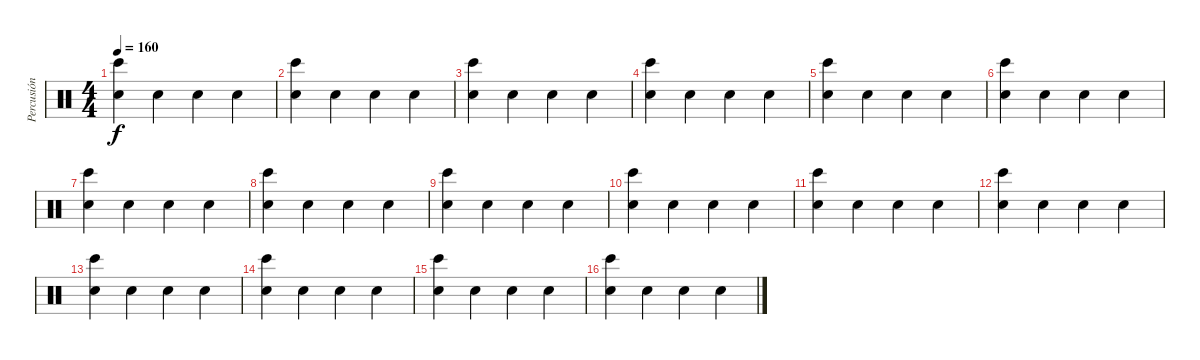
\track ("Percusión" "Percusión") {instrument percussion}
\staff {score}
\articulation defaults
\ts (4 4)
\tempo 160
\clef neutral
\ks c
("Electric Snare (hit)" "Bongo High (hit)").4{dy f} "Electric Snare (hit)".4 "Electric Snare (hit)".4 "Electric Snare (hit)".4 |
("Electric Snare (hit)" "Bongo High (hit)").4 "Electric Snare (hit)".4 "Electric Snare (hit)".4 "Electric Snare (hit)".4 |
("Electric Snare (hit)" "Bongo High (hit)").4 "Electric Snare (hit)".4 "Electric Snare (hit)".4 "Electric Snare (hit)".4 |
("Electric Snare (hit)" "Bongo High (hit)").4 "Electric Snare (hit)".4 "Electric Snare (hit)".4 "Electric Snare (hit)".4 |
("Electric Snare (hit)" "Bongo High (hit)").4 "Electric Snare (hit)".4 "Electric Snare (hit)".4 "Electric Snare (hit)".4 |
("Electric Snare (hit)" "Bongo High (hit)").4 "Electric Snare (hit)".4 "Electric Snare (hit)".4 "Electric Snare (hit)".4 |
("Electric Snare (hit)" "Bongo High (hit)").4 "Electric Snare (hit)".4 "Electric Snare (hit)".4 "Electric Snare (hit)".4 |
("Electric Snare (hit)" "Bongo High (hit)").4 "Electric Snare (hit)".4 "Electric Snare (hit)".4 "Electric Snare (hit)".4 |
("Electric Snare (hit)" "Bongo High (hit)").4 "Electric Snare (hit)".4 "Electric Snare (hit)".4 "Electric Snare (hit)".4 |
("Electric Snare (hit)" "Bongo High (hit)").4 "Electric Snare (hit)".4 "Electric Snare (hit)".4 "Electric Snare (hit)".4 |
("Electric Snare (hit)" "Bongo High (hit)").4 "Electric Snare (hit)".4 "Electric Snare (hit)".4 "Electric Snare (hit)".4 |
("Electric Snare (hit)" "Bongo High (hit)").4 "Electric Snare (hit)".4 "Electric Snare (hit)".4 "Electric Snare (hit)".4 |
("Electric Snare (hit)" "Bongo High (hit)").4 "Electric Snare (hit)".4 "Electric Snare (hit)".4 "Electric Snare (hit)".4 |
("Electric Snare (hit)" "Bongo High (hit)").4 "Electric Snare (hit)".4 "Electric Snare (hit)".4 "Electric Snare (hit)".4 |
("Electric Snare (hit)" "Bongo High (hit)").4 "Electric Snare (hit)".4 "Electric Snare (hit)".4 "Electric Snare (hit)".4 |
("Electric Snare (hit)" "Bongo High (hit)").4 "Electric Snare (hit)".4 "Electric Snare (hit)".4 "Electric Snare (hit)".4
